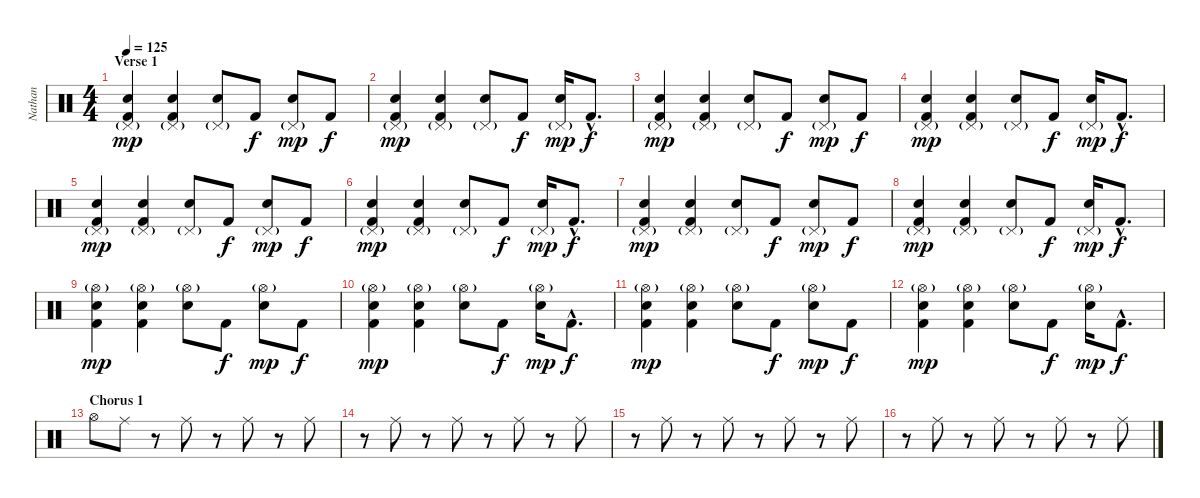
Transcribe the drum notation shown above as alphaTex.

\track ("Nathan" "Nathan") {instrument percussion}
\staff {score}
\articulation defaults
\ts (4 4)
\section ("" "Verse 1")
\tempo 125
\clef neutral
\ks c
("Pedal Hi-Hat (hit)"{g} "Electric Snare (hit)" "Kick (hit) 2").4{dy mp} ("Pedal Hi-Hat (hit)"{g} "Electric Snare (hit)" "Kick (hit) 2").4 ("Pedal Hi-Hat (hit)"{g} "Electric Snare (hit)").8 "Kick (hit) 2".8{dy f} ("Pedal Hi-Hat (hit)"{g} "Electric Snare (hit)").8{dy mp} "Kick (hit) 2".8{dy f} |
("Pedal Hi-Hat (hit)"{g} "Electric Snare (hit)" "Kick (hit) 2").4{dy mp} ("Pedal Hi-Hat (hit)"{g} "Electric Snare (hit)" "Kick (hit) 2").4 ("Pedal Hi-Hat (hit)"{g} "Electric Snare (hit)").8 "Kick (hit) 2".8{dy f} ("Pedal Hi-Hat (hit)"{g} "Electric Snare (hit)").16{dy mp} "Kick (hit) 2"{hac}.8{d dy f} |
("Pedal Hi-Hat (hit)"{g} "Electric Snare (hit)" "Kick (hit) 2").4{dy mp} ("Pedal Hi-Hat (hit)"{g} "Electric Snare (hit)" "Kick (hit) 2").4 ("Pedal Hi-Hat (hit)"{g} "Electric Snare (hit)").8 "Kick (hit) 2".8{dy f} ("Pedal Hi-Hat (hit)"{g} "Electric Snare (hit)").8{dy mp} "Kick (hit) 2".8{dy f} |
("Pedal Hi-Hat (hit)"{g} "Electric Snare (hit)" "Kick (hit) 2").4{dy mp} ("Pedal Hi-Hat (hit)"{g} "Electric Snare (hit)" "Kick (hit) 2").4 ("Pedal Hi-Hat (hit)"{g} "Electric Snare (hit)").8 "Kick (hit) 2".8{dy f} ("Pedal Hi-Hat (hit)"{g} "Electric Snare (hit)").16{dy mp} "Kick (hit) 2"{hac}.8{d dy f} |
("Pedal Hi-Hat (hit)"{g} "Electric Snare (hit)" "Kick (hit) 2").4{dy mp} ("Pedal Hi-Hat (hit)"{g} "Electric Snare (hit)" "Kick (hit) 2").4 ("Pedal Hi-Hat (hit)"{g} "Electric Snare (hit)").8 "Kick (hit) 2".8{dy f} ("Pedal Hi-Hat (hit)"{g} "Electric Snare (hit)").8{dy mp} "Kick (hit) 2".8{dy f} |
("Pedal Hi-Hat (hit)"{g} "Electric Snare (hit)" "Kick (hit) 2").4{dy mp} ("Pedal Hi-Hat (hit)"{g} "Electric Snare (hit)" "Kick (hit) 2").4 ("Pedal Hi-Hat (hit)"{g} "Electric Snare (hit)").8 "Kick (hit) 2".8{dy f} ("Pedal Hi-Hat (hit)"{g} "Electric Snare (hit)").16{dy mp} "Kick (hit) 2"{hac}.8{d dy f} |
("Pedal Hi-Hat (hit)"{g} "Electric Snare (hit)" "Kick (hit) 2").4{dy mp} ("Pedal Hi-Hat (hit)"{g} "Electric Snare (hit)" "Kick (hit) 2").4 ("Pedal Hi-Hat (hit)"{g} "Electric Snare (hit)").8 "Kick (hit) 2".8{dy f} ("Pedal Hi-Hat (hit)"{g} "Electric Snare (hit)").8{dy mp} "Kick (hit) 2".8{dy f} |
("Pedal Hi-Hat (hit)"{g} "Electric Snare (hit)" "Kick (hit) 2").4{dy mp} ("Pedal Hi-Hat (hit)"{g} "Electric Snare (hit)" "Kick (hit) 2").4 ("Pedal Hi-Hat (hit)"{g} "Electric Snare (hit)").8 "Kick (hit) 2".8{dy f} ("Pedal Hi-Hat (hit)"{g} "Electric Snare (hit)").16{dy mp} "Kick (hit) 2"{hac}.8{d dy f} |
("Hi-Hat (open)"{g} "Electric Snare (hit)" "Kick (hit) 2").4{dy mp} ("Hi-Hat (open)"{g} "Electric Snare (hit)" "Kick (hit) 2").4 ("Hi-Hat (open)"{g} "Electric Snare (hit)").8 "Kick (hit) 2".8{dy f} ("Hi-Hat (open)"{g} "Electric Snare (hit)").8{dy mp} "Kick (hit) 2".8{dy f} |
("Hi-Hat (open)"{g} "Electric Snare (hit)" "Kick (hit) 2").4{dy mp} ("Hi-Hat (open)"{g} "Electric Snare (hit)" "Kick (hit) 2").4 ("Hi-Hat (open)"{g} "Electric Snare (hit)").8 "Kick (hit) 2".8{dy f} ("Hi-Hat (open)"{g} "Electric Snare (hit)").16{dy mp} "Kick (hit) 2"{hac}.8{d dy f} |
("Hi-Hat (open)"{g} "Electric Snare (hit)" "Kick (hit) 2").4{dy mp} ("Hi-Hat (open)"{g} "Electric Snare (hit)" "Kick (hit) 2").4 ("Hi-Hat (open)"{g} "Electric Snare (hit)").8 "Kick (hit) 2".8{dy f} ("Hi-Hat (open)"{g} "Electric Snare (hit)").8{dy mp} "Kick (hit) 2".8{dy f} |
("Hi-Hat (open)"{g} "Electric Snare (hit)" "Kick (hit) 2").4{dy mp} ("Hi-Hat (open)"{g} "Electric Snare (hit)" "Kick (hit) 2").4 ("Hi-Hat (open)"{g} "Electric Snare (hit)").8 "Kick (hit) 2".8{dy f} ("Hi-Hat (open)"{g} "Electric Snare (hit)").16{dy mp} "Kick (hit) 2"{hac}.8{d dy f} |
\section ("" "Chorus 1")
"Hi-Hat (open)".8 "Ride (middle)".8 r.8 "Ride (middle)".8 r.8 "Ride (middle)".8 r.8 "Ride (middle)".8 |
r.8 "Ride (middle)".8 r.8 "Ride (middle)".8 r.8 "Ride (middle)".8 r.8 "Ride (middle)".8 |
r.8 "Ride (middle)".8 r.8 "Ride (middle)".8 r.8 "Ride (middle)".8 r.8 "Ride (middle)".8 |
r.8 "Ride (middle)".8 r.8 "Ride (middle)".8 r.8 "Ride (middle)".8 r.8 "Ride (middle)".8
